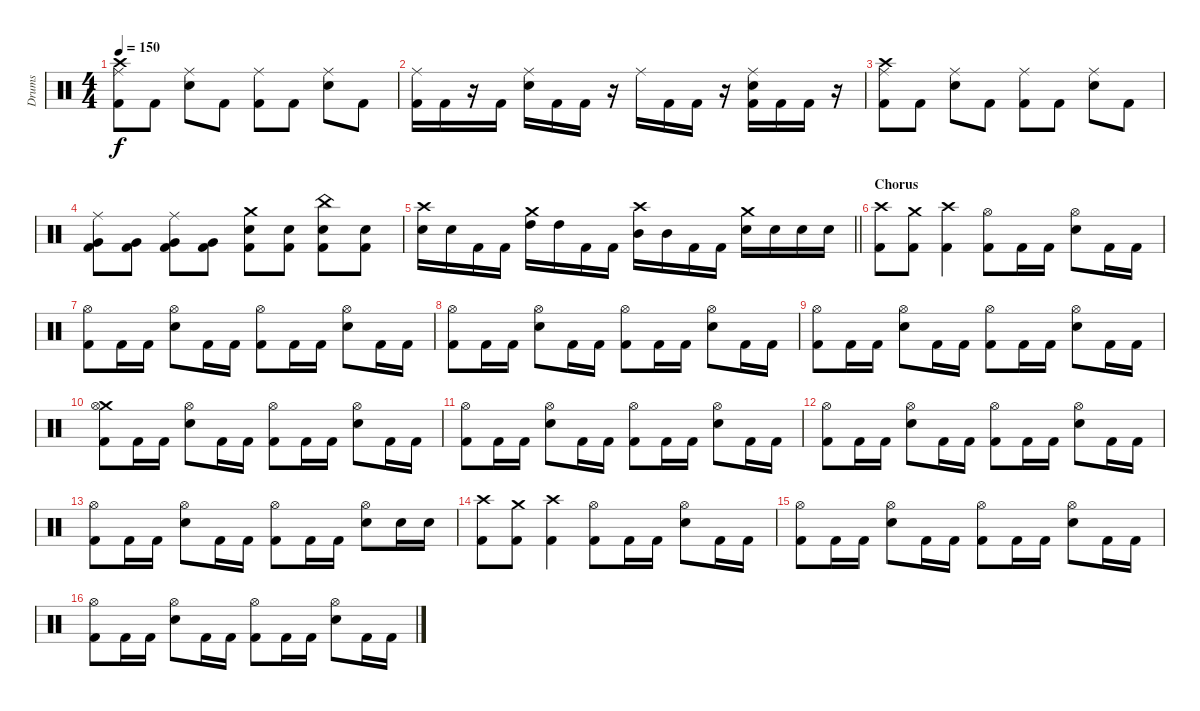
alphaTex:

\track ("Drums" "Drums") {instrument percussion}
\staff {score}
\articulation defaults
\ts (4 4)
\tempo 150
\clef neutral
\ks c
("Crash high (hit)" "Ride (middle)" "Kick (hit) 2").8{dy f} "Kick (hit) 2".8 ("Ride (middle)" "Snare (hit) 2").8 "Kick (hit) 2".8 ("Ride (middle)" "Kick (hit) 2").8 "Kick (hit) 2".8 ("Ride (middle)" "Snare (hit) 2").8 "Kick (hit) 2".8 |
("Ride (middle)" "Kick (hit) 2").16 "Kick (hit) 2".16 r.16 "Kick (hit) 2".16 ("Ride (middle)" "Snare (hit) 2").16 "Kick (hit) 2".16 "Kick (hit) 2".16 r.16 "Ride (middle)".16 "Kick (hit) 2".16 "Kick (hit) 2".16 r.16 ("Ride (middle)" "Snare (hit) 2" "Kick (hit) 2").16 "Kick (hit) 2".16 "Kick (hit) 2".16 r.16 |
("Crash high (hit)" "Ride (middle)" "Kick (hit) 2").8 "Kick (hit) 2".8 ("Ride (middle)" "Snare (hit) 2").8 "Kick (hit) 2".8 ("Ride (middle)" "Kick (hit) 2").8 "Kick (hit) 2".8 ("Ride (middle)" "Snare (hit) 2").8 "Kick (hit) 2".8 |
("Ride (middle)" "Very Low Tom (hit)" "Kick (hit) 2").8 ("Very Low Tom (hit)" "Kick (hit) 2").8 ("Ride (middle)" "Very Low Tom (hit)" "Kick (hit) 2").8 ("Very Low Tom (hit)" "Kick (hit) 2").8 ("Crash medium (hit)" "Snare (hit) 2" "Kick (hit) 2").8 ("Snare (hit) 2" "Kick (hit) 2").8 ("China (hit)" "Snare (hit) 2" "Kick (hit) 2").8 ("Snare (hit) 2" "Kick (hit) 2").8 |
\barLineRight lightlight
("Crash high (hit)" "Snare (hit) 2").16 "Snare (hit) 2".16 "Kick (hit) 2".16 "Kick (hit) 2".16 ("Crash medium (hit)" "High Tom (hit)").16 "High Tom (hit)".16 "Kick (hit) 2".16 "Kick (hit) 2".16 ("Crash high (hit)" "Mid Tom (hit)").16 "Mid Tom (hit)".16 "Kick (hit) 2".16 "Kick (hit) 2".16 ("Crash medium (hit)" "Snare (hit) 2").16 "Snare (hit) 2".16 "Snare (hit) 2".16 "Snare (hit) 2".16 |
\section ("" "Chorus")
("Crash high (hit)" "Kick (hit) 2").8 ("Crash medium (hit)" "Kick (hit) 2").8 ("Crash high (hit)" "Kick (hit) 2").4 ("Hi-Hat (open)" "Kick (hit) 2").8 "Kick (hit) 2".16 "Kick (hit) 2".16 ("Hi-Hat (open)" "Snare (hit) 2").8 "Kick (hit) 2".16 "Kick (hit) 2".16 |
("Hi-Hat (open)" "Kick (hit) 2").8 "Kick (hit) 2".16 "Kick (hit) 2".16 ("Hi-Hat (open)" "Snare (hit) 2").8 "Kick (hit) 2".16 "Kick (hit) 2".16 ("Hi-Hat (open)" "Kick (hit) 2").8 "Kick (hit) 2".16 "Kick (hit) 2".16 ("Hi-Hat (open)" "Snare (hit) 2").8 "Kick (hit) 2".16 "Kick (hit) 2".16 |
("Hi-Hat (open)" "Kick (hit) 2").8 "Kick (hit) 2".16 "Kick (hit) 2".16 ("Hi-Hat (open)" "Snare (hit) 2").8 "Kick (hit) 2".16 "Kick (hit) 2".16 ("Hi-Hat (open)" "Kick (hit) 2").8 "Kick (hit) 2".16 "Kick (hit) 2".16 ("Hi-Hat (open)" "Snare (hit) 2").8 "Kick (hit) 2".16 "Kick (hit) 2".16 |
("Hi-Hat (open)" "Kick (hit) 2").8 "Kick (hit) 2".16 "Kick (hit) 2".16 ("Hi-Hat (open)" "Snare (hit) 2").8 "Kick (hit) 2".16 "Kick (hit) 2".16 ("Hi-Hat (open)" "Kick (hit) 2").8 "Kick (hit) 2".16 "Kick (hit) 2".16 ("Hi-Hat (open)" "Snare (hit) 2").8 "Kick (hit) 2".16 "Kick (hit) 2".16 |
("Crash medium (hit)" "Hi-Hat (open)" "Kick (hit) 2").8 "Kick (hit) 2".16 "Kick (hit) 2".16 ("Hi-Hat (open)" "Snare (hit) 2").8 "Kick (hit) 2".16 "Kick (hit) 2".16 ("Hi-Hat (open)" "Kick (hit) 2").8 "Kick (hit) 2".16 "Kick (hit) 2".16 ("Hi-Hat (open)" "Snare (hit) 2").8 "Kick (hit) 2".16 "Kick (hit) 2".16 |
("Hi-Hat (open)" "Kick (hit) 2").8 "Kick (hit) 2".16 "Kick (hit) 2".16 ("Hi-Hat (open)" "Snare (hit) 2").8 "Kick (hit) 2".16 "Kick (hit) 2".16 ("Hi-Hat (open)" "Kick (hit) 2").8 "Kick (hit) 2".16 "Kick (hit) 2".16 ("Hi-Hat (open)" "Snare (hit) 2").8 "Kick (hit) 2".16 "Kick (hit) 2".16 |
("Hi-Hat (open)" "Kick (hit) 2").8 "Kick (hit) 2".16 "Kick (hit) 2".16 ("Hi-Hat (open)" "Snare (hit) 2").8 "Kick (hit) 2".16 "Kick (hit) 2".16 ("Hi-Hat (open)" "Kick (hit) 2").8 "Kick (hit) 2".16 "Kick (hit) 2".16 ("Hi-Hat (open)" "Snare (hit) 2").8 "Kick (hit) 2".16 "Kick (hit) 2".16 |
("Hi-Hat (open)" "Kick (hit) 2").8 "Kick (hit) 2".16 "Kick (hit) 2".16 ("Hi-Hat (open)" "Snare (hit) 2").8 "Kick (hit) 2".16 "Kick (hit) 2".16 ("Hi-Hat (open)" "Kick (hit) 2").8 "Kick (hit) 2".16 "Kick (hit) 2".16 ("Hi-Hat (open)" "Snare (hit) 2").8 "Snare (hit) 2".16 "Snare (hit) 2".16 |
("Crash high (hit)" "Kick (hit) 2").8 ("Crash medium (hit)" "Kick (hit) 2").8 ("Crash high (hit)" "Kick (hit) 2").4 ("Hi-Hat (open)" "Kick (hit) 2").8 "Kick (hit) 2".16 "Kick (hit) 2".16 ("Hi-Hat (open)" "Snare (hit) 2").8 "Kick (hit) 2".16 "Kick (hit) 2".16 |
("Hi-Hat (open)" "Kick (hit) 2").8 "Kick (hit) 2".16 "Kick (hit) 2".16 ("Hi-Hat (open)" "Snare (hit) 2").8 "Kick (hit) 2".16 "Kick (hit) 2".16 ("Hi-Hat (open)" "Kick (hit) 2").8 "Kick (hit) 2".16 "Kick (hit) 2".16 ("Hi-Hat (open)" "Snare (hit) 2").8 "Kick (hit) 2".16 "Kick (hit) 2".16 |
("Hi-Hat (open)" "Kick (hit) 2").8 "Kick (hit) 2".16 "Kick (hit) 2".16 ("Hi-Hat (open)" "Snare (hit) 2").8 "Kick (hit) 2".16 "Kick (hit) 2".16 ("Hi-Hat (open)" "Kick (hit) 2").8 "Kick (hit) 2".16 "Kick (hit) 2".16 ("Hi-Hat (open)" "Snare (hit) 2").8 "Kick (hit) 2".16 "Kick (hit) 2".16
